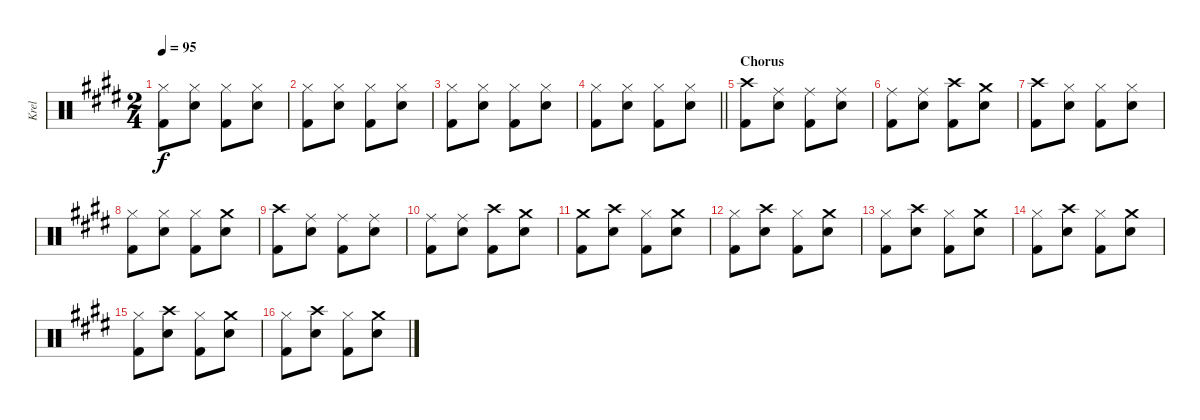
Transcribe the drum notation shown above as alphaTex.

\track ("Krel" "Krel") {instrument percussion}
\staff {score}
\articulation defaults
\ts (2 4)
\tempo 95
\clef neutral
\ks e
("Hi-Hat (closed)" "Kick (hit) 2").8{dy f} ("Hi-Hat (closed)" "Snare (hit) 2").8 ("Hi-Hat (closed)" "Kick (hit) 2").8 ("Hi-Hat (closed)" "Snare (hit) 2").8 |
("Hi-Hat (closed)" "Kick (hit) 2").8 ("Hi-Hat (closed)" "Snare (hit) 2").8 ("Hi-Hat (closed)" "Kick (hit) 2").8 ("Hi-Hat (closed)" "Snare (hit) 2").8 |
("Hi-Hat (closed)" "Kick (hit) 2").8 ("Hi-Hat (closed)" "Snare (hit) 2").8 ("Hi-Hat (closed)" "Kick (hit) 2").8 ("Hi-Hat (closed)" "Snare (hit) 2").8 |
\barLineRight lightlight
("Hi-Hat (closed)" "Kick (hit) 2").8 ("Hi-Hat (closed)" "Snare (hit) 2").8 ("Hi-Hat (closed)" "Kick (hit) 2").8 ("Hi-Hat (closed)" "Snare (hit) 2").8 |
\section ("" "Chorus")
("Crash high (hit)" "Kick (hit) 2").8 ("Ride (middle)" "Snare (hit) 2").8 ("Ride (middle)" "Kick (hit) 2").8 ("Ride (middle)" "Snare (hit) 2").8 |
("Ride (middle)" "Kick (hit) 2").8 ("Ride (middle)" "Snare (hit) 2").8 ("Crash high (hit)" "Kick (hit) 2").8 ("Crash medium (hit)" "Snare (hit) 2").8 |
("Crash high (hit)" "Kick (hit) 2").8 ("Hi-Hat (closed)" "Snare (hit) 2").8 ("Hi-Hat (closed)" "Kick (hit) 2").8 ("Hi-Hat (closed)" "Snare (hit) 2").8 |
("Hi-Hat (closed)" "Kick (hit) 2").8 ("Hi-Hat (closed)" "Snare (hit) 2").8 ("Hi-Hat (closed)" "Kick (hit) 2").8 ("Crash medium (hit)" "Snare (hit) 2").8 |
("Crash high (hit)" "Kick (hit) 2").8 ("Ride (middle)" "Snare (hit) 2").8 ("Ride (middle)" "Kick (hit) 2").8 ("Ride (middle)" "Snare (hit) 2").8 |
("Ride (middle)" "Kick (hit) 2").8 ("Ride (middle)" "Snare (hit) 2").8 ("Crash high (hit)" "Kick (hit) 2").8 ("Crash medium (hit)" "Snare (hit) 2").8 |
("Crash medium (hit)" "Kick (hit) 2").8 ("Crash high (hit)" "Snare (hit) 2").8 ("Hi-Hat (closed)" "Kick (hit) 2").8 ("Crash medium (hit)" "Snare (hit) 2").8 |
("Hi-Hat (closed)" "Kick (hit) 2").8 ("Crash high (hit)" "Snare (hit) 2").8 ("Hi-Hat (closed)" "Kick (hit) 2").8 ("Crash medium (hit)" "Snare (hit) 2").8 |
("Hi-Hat (closed)" "Kick (hit) 2").8 ("Crash high (hit)" "Snare (hit) 2").8 ("Hi-Hat (closed)" "Kick (hit) 2").8 ("Crash medium (hit)" "Snare (hit) 2").8 |
("Hi-Hat (closed)" "Kick (hit) 2").8 ("Crash high (hit)" "Snare (hit) 2").8 ("Hi-Hat (closed)" "Kick (hit) 2").8 ("Crash medium (hit)" "Snare (hit) 2").8 |
("Hi-Hat (closed)" "Kick (hit) 2").8 ("Crash high (hit)" "Snare (hit) 2").8 ("Hi-Hat (closed)" "Kick (hit) 2").8 ("Crash medium (hit)" "Snare (hit) 2").8 |
("Hi-Hat (closed)" "Kick (hit) 2").8 ("Crash high (hit)" "Snare (hit) 2").8 ("Hi-Hat (closed)" "Kick (hit) 2").8 ("Crash medium (hit)" "Snare (hit) 2").8
